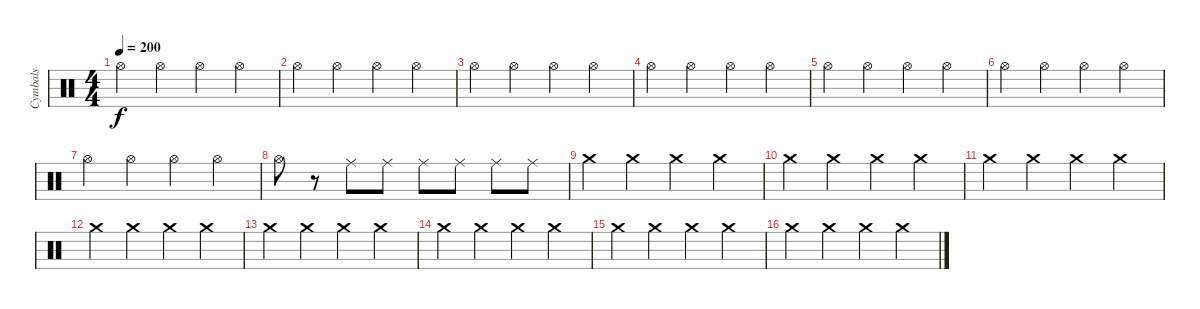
\track ("Cymbals" "Cymbals") {instrument percussion}
\staff {score}
\articulation defaults
\ts (4 4)
\tempo 200
\clef neutral
\ks c "Hi-Hat (open)".4{dy f} "Hi-Hat (open)".4 "Hi-Hat (open)".4 "Hi-Hat (open)".4
|
"Hi-Hat (open)".4 "Hi-Hat (open)".4 "Hi-Hat (open)".4 "Hi-Hat (open)".4 |
"Hi-Hat (open)".4 "Hi-Hat (open)".4 "Hi-Hat (open)".4 "Hi-Hat (open)".4 |
"Hi-Hat (open)".4 "Hi-Hat (open)".4 "Hi-Hat (open)".4 "Hi-Hat (open)".4 |
"Hi-Hat (open)".4 "Hi-Hat (open)".4 "Hi-Hat (open)".4 "Hi-Hat (open)".4 |
"Hi-Hat (open)".4 "Hi-Hat (open)".4 "Hi-Hat (open)".4 "Hi-Hat (open)".4 |
"Hi-Hat (open)".4 "Hi-Hat (open)".4 "Hi-Hat (open)".4 "Hi-Hat (open)".4 |
"Hi-Hat (open)".8 r.8 "Ride (middle)".8 "Ride (middle)".8 "Ride (middle)".8 "Ride (middle)".8 "Ride (middle)".8 "Ride (middle)".8 |
"Crash medium (hit)".4 "Crash medium (hit)".4 "Crash medium (hit)".4 "Crash medium (hit)".4 |
"Crash medium (hit)".4 "Crash medium (hit)".4 "Crash medium (hit)".4 "Crash medium (hit)".4 |
"Crash medium (hit)".4 "Crash medium (hit)".4 "Crash medium (hit)".4 "Crash medium (hit)".4 |
"Crash medium (hit)".4 "Crash medium (hit)".4 "Crash medium (hit)".4 "Crash medium (hit)".4 |
"Crash medium (hit)".4 "Crash medium (hit)".4 "Crash medium (hit)".4 "Crash medium (hit)".4 |
"Crash medium (hit)".4 "Crash medium (hit)".4 "Crash medium (hit)".4 "Crash medium (hit)".4 |
"Crash medium (hit)".4 "Crash medium (hit)".4 "Crash medium (hit)".4 "Crash medium (hit)".4 |
"Crash medium (hit)".4 "Crash medium (hit)".4 "Crash medium (hit)".4 "Crash medium (hit)".4
